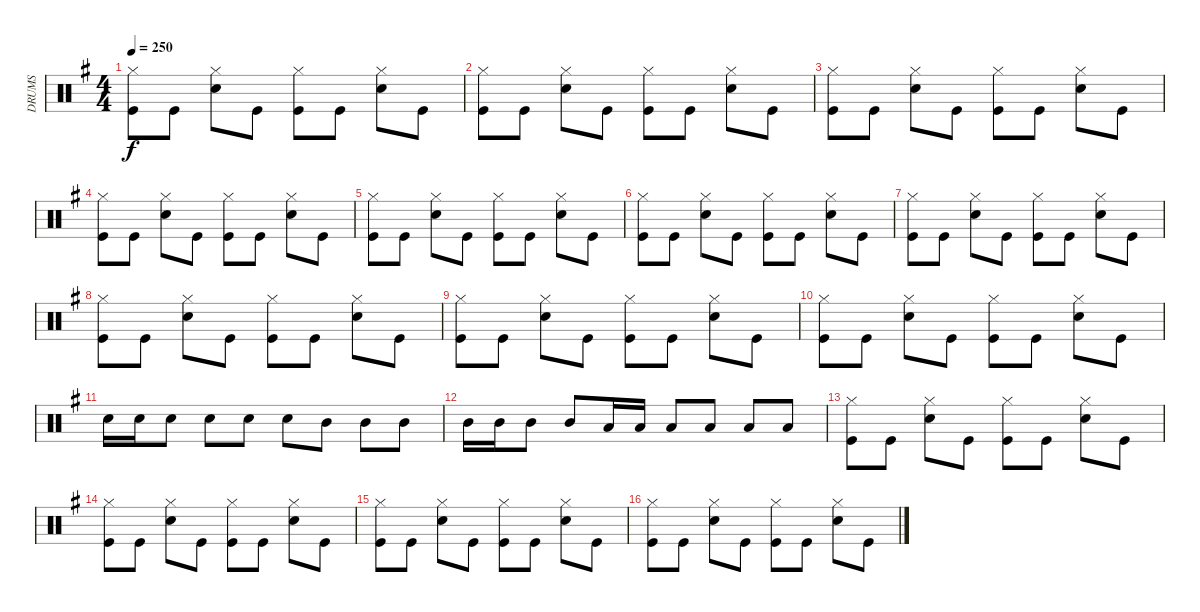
\track ("DRUMS" "DRUMS") {instrument percussion}
\staff {score}
\articulation defaults
\ts (4 4)
\tempo 250
\clef neutral
\ks eminor
("Hi-Hat (closed)" "Kick (hit)").8{dy f} "Kick (hit)".8 ("Hi-Hat (closed)" "Snare (hit) 2").8 "Kick (hit)".8 ("Hi-Hat (closed)" "Kick (hit)").8 "Kick (hit)".8 ("Hi-Hat (closed)" "Snare (hit) 2").8 "Kick (hit)".8 |
("Hi-Hat (closed)" "Kick (hit)").8 "Kick (hit)".8 ("Hi-Hat (closed)" "Snare (hit) 2").8 "Kick (hit)".8 ("Hi-Hat (closed)" "Kick (hit)").8 "Kick (hit)".8 ("Hi-Hat (closed)" "Snare (hit) 2").8 "Kick (hit)".8 |
("Hi-Hat (closed)" "Kick (hit)").8 "Kick (hit)".8 ("Hi-Hat (closed)" "Snare (hit) 2").8 "Kick (hit)".8 ("Hi-Hat (closed)" "Kick (hit)").8 "Kick (hit)".8 ("Hi-Hat (closed)" "Snare (hit) 2").8 "Kick (hit)".8 |
("Hi-Hat (closed)" "Kick (hit)").8 "Kick (hit)".8 ("Hi-Hat (closed)" "Snare (hit) 2").8 "Kick (hit)".8 ("Hi-Hat (closed)" "Kick (hit)").8 "Kick (hit)".8 ("Hi-Hat (closed)" "Snare (hit) 2").8 "Kick (hit)".8 |
("Hi-Hat (closed)" "Kick (hit)").8 "Kick (hit)".8 ("Hi-Hat (closed)" "Snare (hit) 2").8 "Kick (hit)".8 ("Hi-Hat (closed)" "Kick (hit)").8 "Kick (hit)".8 ("Hi-Hat (closed)" "Snare (hit) 2").8 "Kick (hit)".8 |
("Hi-Hat (closed)" "Kick (hit)").8 "Kick (hit)".8 ("Hi-Hat (closed)" "Snare (hit) 2").8 "Kick (hit)".8 ("Hi-Hat (closed)" "Kick (hit)").8 "Kick (hit)".8 ("Hi-Hat (closed)" "Snare (hit) 2").8 "Kick (hit)".8 |
("Hi-Hat (closed)" "Kick (hit)").8 "Kick (hit)".8 ("Hi-Hat (closed)" "Snare (hit) 2").8 "Kick (hit)".8 ("Hi-Hat (closed)" "Kick (hit)").8 "Kick (hit)".8 ("Hi-Hat (closed)" "Snare (hit) 2").8 "Kick (hit)".8 |
("Hi-Hat (closed)" "Kick (hit)").8 "Kick (hit)".8 ("Hi-Hat (closed)" "Snare (hit) 2").8 "Kick (hit)".8 ("Hi-Hat (closed)" "Kick (hit)").8 "Kick (hit)".8 ("Hi-Hat (closed)" "Snare (hit) 2").8 "Kick (hit)".8 |
("Hi-Hat (closed)" "Kick (hit)").8 "Kick (hit)".8 ("Hi-Hat (closed)" "Snare (hit) 2").8 "Kick (hit)".8 ("Hi-Hat (closed)" "Kick (hit)").8 "Kick (hit)".8 ("Hi-Hat (closed)" "Snare (hit) 2").8 "Kick (hit)".8 |
("Hi-Hat (closed)" "Kick (hit)").8 "Kick (hit)".8 ("Hi-Hat (closed)" "Snare (hit) 2").8 "Kick (hit)".8 ("Hi-Hat (closed)" "Kick (hit)").8 "Kick (hit)".8 ("Hi-Hat (closed)" "Snare (hit) 2").8 "Kick (hit)".8 |
"Snare (hit) 2".16 "Snare (hit) 2".16 "Snare (hit) 2".8 "Snare (hit) 2".8 "Snare (hit) 2".8 "Snare (hit) 2".8 "Mid Tom (hit)".8 "Mid Tom (hit)".8 "Mid Tom (hit)".8 |
"Mid Tom (hit)".16 "Mid Tom (hit)".16 "Mid Tom (hit)".8 "Mid Tom (hit)".8 "Low Tom (hit)".16 "Low Tom (hit)".16 "Low Tom (hit)".8 "Low Tom (hit)".8 "Low Tom (hit)".8 "Low Tom (hit)".8 |
("Hi-Hat (closed)" "Kick (hit)").8 "Kick (hit)".8 ("Hi-Hat (closed)" "Snare (hit) 2").8 "Kick (hit)".8 ("Hi-Hat (closed)" "Kick (hit)").8 "Kick (hit)".8 ("Hi-Hat (closed)" "Snare (hit) 2").8 "Kick (hit)".8 |
("Hi-Hat (closed)" "Kick (hit)").8 "Kick (hit)".8 ("Hi-Hat (closed)" "Snare (hit) 2").8 "Kick (hit)".8 ("Hi-Hat (closed)" "Kick (hit)").8 "Kick (hit)".8 ("Hi-Hat (closed)" "Snare (hit) 2").8 "Kick (hit)".8 |
("Hi-Hat (closed)" "Kick (hit)").8 "Kick (hit)".8 ("Hi-Hat (closed)" "Snare (hit) 2").8 "Kick (hit)".8 ("Hi-Hat (closed)" "Kick (hit)").8 "Kick (hit)".8 ("Hi-Hat (closed)" "Snare (hit) 2").8 "Kick (hit)".8 |
("Hi-Hat (closed)" "Kick (hit)").8 "Kick (hit)".8 ("Hi-Hat (closed)" "Snare (hit) 2").8 "Kick (hit)".8 ("Hi-Hat (closed)" "Kick (hit)").8 "Kick (hit)".8 ("Hi-Hat (closed)" "Snare (hit) 2").8 "Kick (hit)".8
